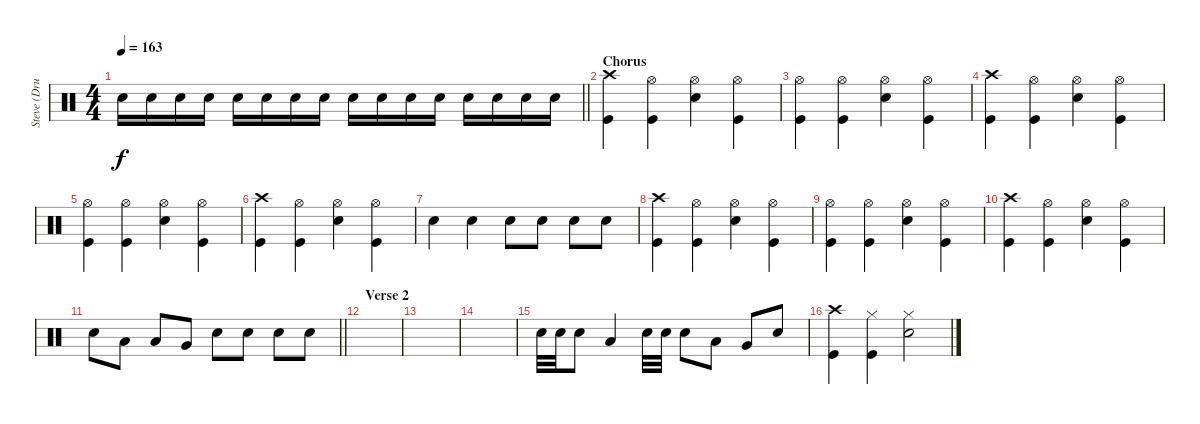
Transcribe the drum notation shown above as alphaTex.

\track ("Steve (Drums)" "Steve (Dru") {instrument percussion}
\staff {score}
\articulation defaults
\ts (4 4)
\tempo 163
\clef neutral
\barLineRight lightlight
\ks c "Electric Snare (hit)".16{dy f} "Electric Snare (hit)".16 "Electric Snare (hit)".16 "Electric Snare (hit)".16 "Electric Snare (hit)".16 "Electric Snare (hit)".16 "Electric Snare (hit)".16 "Electric Snare (hit)".16 "Electric Snare (hit)".16 "Electric Snare (hit)".16 "Electric Snare (hit)".16 "Electric Snare (hit)".16 "Electric Snare (hit)".16 "Electric Snare (hit)".16 "Electric Snare (hit)".16 "Electric Snare (hit)".16
|
\section ("" "Chorus")
("Crash high (hit)" "Kick (hit)").4 ("Hi-Hat (open)" "Kick (hit)").4 ("Hi-Hat (open)" "Electric Snare (hit)").4 ("Hi-Hat (open)" "Kick (hit)").4 |
("Hi-Hat (open)" "Kick (hit)").4 ("Hi-Hat (open)" "Kick (hit)").4 ("Hi-Hat (open)" "Electric Snare (hit)").4 ("Hi-Hat (open)" "Kick (hit)").4 |
("Crash high (hit)" "Kick (hit)").4 ("Hi-Hat (open)" "Kick (hit)").4 ("Hi-Hat (open)" "Electric Snare (hit)").4 ("Hi-Hat (open)" "Kick (hit)").4 |
("Hi-Hat (open)" "Kick (hit)").4 ("Hi-Hat (open)" "Kick (hit)").4 ("Hi-Hat (open)" "Electric Snare (hit)").4 ("Hi-Hat (open)" "Kick (hit)").4 |
("Crash high (hit)" "Kick (hit)").4 ("Hi-Hat (open)" "Kick (hit)").4 ("Hi-Hat (open)" "Electric Snare (hit)").4 ("Hi-Hat (open)" "Kick (hit)").4 |
"Electric Snare (hit)".4 "Electric Snare (hit)".4 "Electric Snare (hit)".8 "Electric Snare (hit)".8 "Electric Snare (hit)".8 "Electric Snare (hit)".8 |
("Crash high (hit)" "Kick (hit)").4 ("Hi-Hat (open)" "Kick (hit)").4 ("Hi-Hat (open)" "Electric Snare (hit)").4 ("Hi-Hat (open)" "Kick (hit)").4 |
("Hi-Hat (open)" "Kick (hit)").4 ("Hi-Hat (open)" "Kick (hit)").4 ("Hi-Hat (open)" "Electric Snare (hit)").4 ("Hi-Hat (open)" "Kick (hit)").4 |
("Crash high (hit)" "Kick (hit)").4 ("Hi-Hat (open)" "Kick (hit)").4 ("Hi-Hat (open)" "Electric Snare (hit)").4 ("Hi-Hat (open)" "Kick (hit)").4 |
\barLineRight lightlight "Electric Snare (hit)".8 "Low Tom (hit)".8 "Low Tom (hit)".8 "Very Low Tom (hit)".8 "Electric Snare (hit)".8 "Electric Snare (hit)".8 "Electric Snare (hit)".8 "Electric Snare (hit)".8
|
\section ("" "Verse 2")
|
|
|
"Electric Snare (hit)".32 "Electric Snare (hit)".32 "Electric Snare (hit)".8 "Low Tom (hit)".4 "Electric Snare (hit)".32 "Electric Snare (hit)".32 "Electric Snare (hit)".8 "Low Tom (hit)".8 "Very Low Tom (hit)".8 "Electric Snare (hit)".8 |
("Crash high (hit)" "Kick (hit)").4 ("Hi-Hat (closed)" "Kick (hit)").4 ("Hi-Hat (closed)" "Electric Snare (hit)").2
